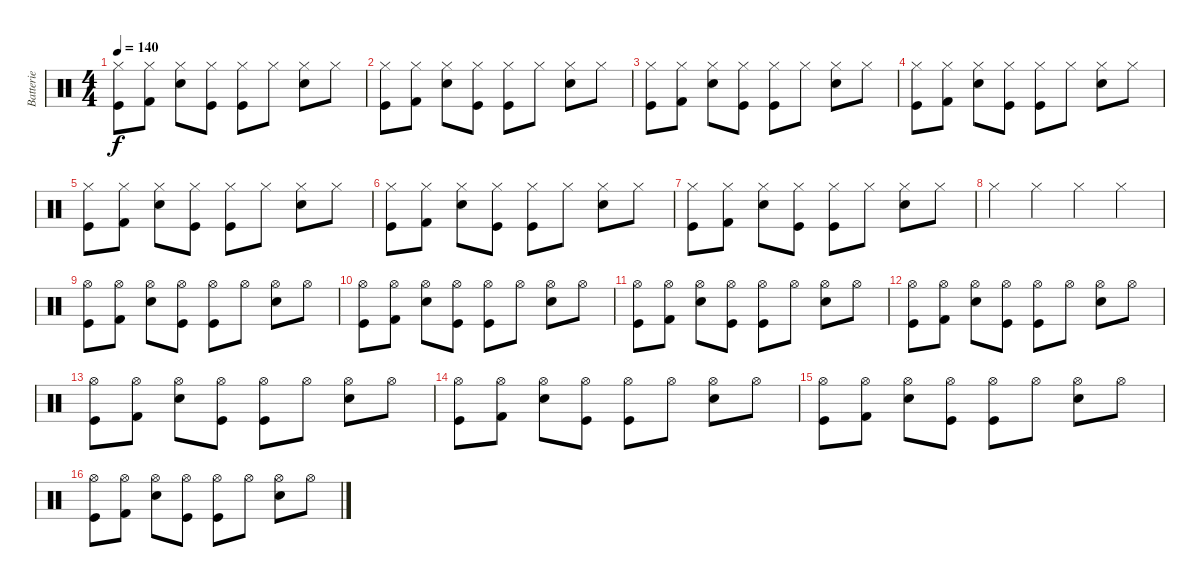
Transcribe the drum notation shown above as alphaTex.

\track ("Batterie" "Batterie") {instrument percussion}
\staff {score}
\articulation defaults
\ts (4 4)
\tempo 140
\clef neutral
\ks c
("Hi-Hat (closed)" "Kick (hit)").8{dy f} ("Hi-Hat (closed)" "Kick (hit) 2").8 ("Hi-Hat (closed)" "Snare (hit) 2").8 ("Hi-Hat (closed)" "Kick (hit)").8 ("Hi-Hat (closed)" "Kick (hit)").8 "Hi-Hat (closed)".8 ("Hi-Hat (closed)" "Snare (hit) 2").8 "Hi-Hat (closed)".8 |
("Hi-Hat (closed)" "Kick (hit)").8 ("Hi-Hat (closed)" "Kick (hit) 2").8 ("Hi-Hat (closed)" "Snare (hit) 2").8 ("Hi-Hat (closed)" "Kick (hit)").8 ("Hi-Hat (closed)" "Kick (hit)").8 "Hi-Hat (closed)".8 ("Hi-Hat (closed)" "Snare (hit) 2").8 "Hi-Hat (closed)".8 |
("Hi-Hat (closed)" "Kick (hit)").8 ("Hi-Hat (closed)" "Kick (hit) 2").8 ("Hi-Hat (closed)" "Snare (hit) 2").8 ("Hi-Hat (closed)" "Kick (hit)").8 ("Hi-Hat (closed)" "Kick (hit)").8 "Hi-Hat (closed)".8 ("Hi-Hat (closed)" "Snare (hit) 2").8 "Hi-Hat (closed)".8 |
("Hi-Hat (closed)" "Kick (hit)").8 ("Hi-Hat (closed)" "Kick (hit) 2").8 ("Hi-Hat (closed)" "Snare (hit) 2").8 ("Hi-Hat (closed)" "Kick (hit)").8 ("Hi-Hat (closed)" "Kick (hit)").8 "Hi-Hat (closed)".8 ("Hi-Hat (closed)" "Snare (hit) 2").8 "Hi-Hat (closed)".8 |
("Hi-Hat (closed)" "Kick (hit)").8 ("Hi-Hat (closed)" "Kick (hit) 2").8 ("Hi-Hat (closed)" "Snare (hit) 2").8 ("Hi-Hat (closed)" "Kick (hit)").8 ("Hi-Hat (closed)" "Kick (hit)").8 "Hi-Hat (closed)".8 ("Hi-Hat (closed)" "Snare (hit) 2").8 "Hi-Hat (closed)".8 |
("Hi-Hat (closed)" "Kick (hit)").8 ("Hi-Hat (closed)" "Kick (hit) 2").8 ("Hi-Hat (closed)" "Snare (hit) 2").8 ("Hi-Hat (closed)" "Kick (hit)").8 ("Hi-Hat (closed)" "Kick (hit)").8 "Hi-Hat (closed)".8 ("Hi-Hat (closed)" "Snare (hit) 2").8 "Hi-Hat (closed)".8 |
("Hi-Hat (closed)" "Kick (hit)").8 ("Hi-Hat (closed)" "Kick (hit) 2").8 ("Hi-Hat (closed)" "Snare (hit) 2").8 ("Hi-Hat (closed)" "Kick (hit)").8 ("Hi-Hat (closed)" "Kick (hit)").8 "Hi-Hat (closed)".8 ("Hi-Hat (closed)" "Snare (hit) 2").8 "Hi-Hat (closed)".8 |
"Hi-Hat (closed)".4 "Hi-Hat (closed)".4 "Hi-Hat (closed)".4 "Hi-Hat (closed)".4 |
("Hi-Hat (open)" "Kick (hit)").8 ("Hi-Hat (open)" "Kick (hit) 2").8 ("Hi-Hat (open)" "Snare (hit) 2").8 ("Hi-Hat (open)" "Kick (hit)").8 ("Hi-Hat (open)" "Kick (hit)").8 "Hi-Hat (open)".8 ("Hi-Hat (open)" "Snare (hit) 2").8 "Hi-Hat (open)".8 |
("Hi-Hat (open)" "Kick (hit)").8 ("Hi-Hat (open)" "Kick (hit) 2").8 ("Hi-Hat (open)" "Snare (hit) 2").8 ("Hi-Hat (open)" "Kick (hit)").8 ("Hi-Hat (open)" "Kick (hit)").8 "Hi-Hat (open)".8 ("Hi-Hat (open)" "Snare (hit) 2").8 "Hi-Hat (open)".8 |
("Hi-Hat (open)" "Kick (hit)").8 ("Hi-Hat (open)" "Kick (hit) 2").8 ("Hi-Hat (open)" "Snare (hit) 2").8 ("Hi-Hat (open)" "Kick (hit)").8 ("Hi-Hat (open)" "Kick (hit)").8 "Hi-Hat (open)".8 ("Hi-Hat (open)" "Snare (hit) 2").8 "Hi-Hat (open)".8 |
("Hi-Hat (open)" "Kick (hit)").8 ("Hi-Hat (open)" "Kick (hit) 2").8 ("Hi-Hat (open)" "Snare (hit) 2").8 ("Hi-Hat (open)" "Kick (hit)").8 ("Hi-Hat (open)" "Kick (hit)").8 "Hi-Hat (open)".8 ("Hi-Hat (open)" "Snare (hit) 2").8 "Hi-Hat (open)".8 |
("Hi-Hat (open)" "Kick (hit)").8 ("Hi-Hat (open)" "Kick (hit) 2").8 ("Hi-Hat (open)" "Snare (hit) 2").8 ("Hi-Hat (open)" "Kick (hit)").8 ("Hi-Hat (open)" "Kick (hit)").8 "Hi-Hat (open)".8 ("Hi-Hat (open)" "Snare (hit) 2").8 "Hi-Hat (open)".8 |
("Hi-Hat (open)" "Kick (hit)").8 ("Hi-Hat (open)" "Kick (hit) 2").8 ("Hi-Hat (open)" "Snare (hit) 2").8 ("Hi-Hat (open)" "Kick (hit)").8 ("Hi-Hat (open)" "Kick (hit)").8 "Hi-Hat (open)".8 ("Hi-Hat (open)" "Snare (hit) 2").8 "Hi-Hat (open)".8 |
("Hi-Hat (open)" "Kick (hit)").8 ("Hi-Hat (open)" "Kick (hit) 2").8 ("Hi-Hat (open)" "Snare (hit) 2").8 ("Hi-Hat (open)" "Kick (hit)").8 ("Hi-Hat (open)" "Kick (hit)").8 "Hi-Hat (open)".8 ("Hi-Hat (open)" "Snare (hit) 2").8 "Hi-Hat (open)".8 |
("Hi-Hat (open)" "Kick (hit)").8 ("Hi-Hat (open)" "Kick (hit) 2").8 ("Hi-Hat (open)" "Snare (hit) 2").8 ("Hi-Hat (open)" "Kick (hit)").8 ("Hi-Hat (open)" "Kick (hit)").8 "Hi-Hat (open)".8 ("Hi-Hat (open)" "Snare (hit) 2").8 "Hi-Hat (open)".8
